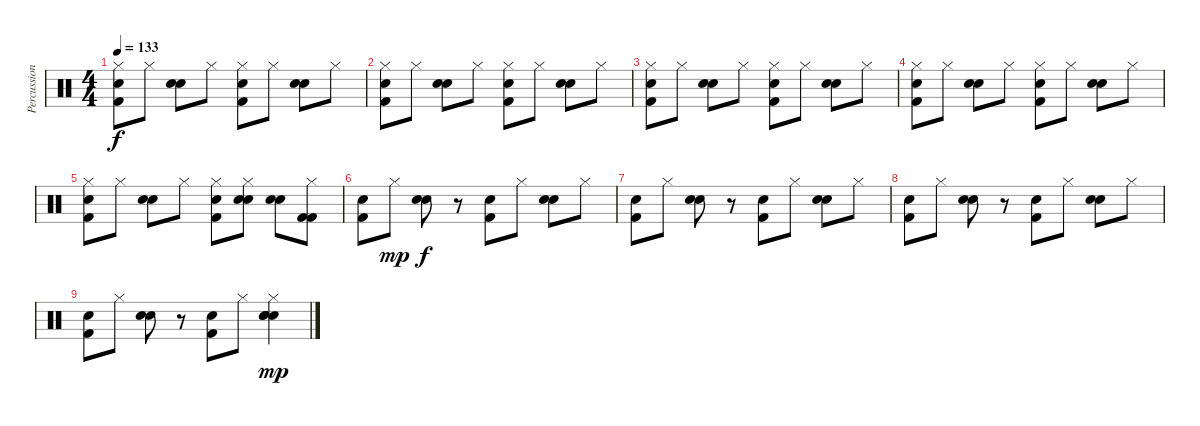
\track ("Percussions" "Percussion") {instrument percussion}
\staff {score}
\articulation defaults
\ts (4 4)
\tempo 133
\clef neutral
\ks c
("Snare (hit) 2" "Kick (hit) 2" "Hi-Hat (closed)").8{dy f} "Hi-Hat (closed)".8 ("Electric Snare (hit)" "Electric Snare (hit)").8 "Hi-Hat (closed)".8 ("Snare (hit) 2" "Kick (hit) 2" "Hi-Hat (closed)").8 "Hi-Hat (closed)".8 ("Electric Snare (hit)" "Electric Snare (hit)").8 "Hi-Hat (closed)".8 |
("Snare (hit) 2" "Kick (hit) 2" "Hi-Hat (closed)").8 "Hi-Hat (closed)".8 ("Electric Snare (hit)" "Electric Snare (hit)").8 "Hi-Hat (closed)".8 ("Snare (hit) 2" "Kick (hit) 2" "Hi-Hat (closed)").8 "Hi-Hat (closed)".8 ("Electric Snare (hit)" "Electric Snare (hit)").8 "Hi-Hat (closed)".8 |
("Snare (hit) 2" "Kick (hit) 2" "Hi-Hat (closed)").8 "Hi-Hat (closed)".8 ("Electric Snare (hit)" "Electric Snare (hit)").8 "Hi-Hat (closed)".8 ("Snare (hit) 2" "Kick (hit) 2" "Hi-Hat (closed)").8 "Hi-Hat (closed)".8 ("Electric Snare (hit)" "Electric Snare (hit)").8 "Hi-Hat (closed)".8 |
("Snare (hit) 2" "Kick (hit) 2" "Hi-Hat (closed)").8 "Hi-Hat (closed)".8 ("Electric Snare (hit)" "Electric Snare (hit)").8 "Hi-Hat (closed)".8 ("Snare (hit) 2" "Kick (hit) 2" "Hi-Hat (closed)").8 "Hi-Hat (closed)".8 ("Electric Snare (hit)" "Electric Snare (hit)").8 "Hi-Hat (closed)".8 |
("Snare (hit) 2" "Kick (hit) 2" "Hi-Hat (closed)").8 "Hi-Hat (closed)".8 ("Electric Snare (hit)" "Electric Snare (hit)").8 "Hi-Hat (closed)".8 ("Snare (hit) 2" "Kick (hit) 2" "Hi-Hat (closed)").8 ("Electric Snare (hit)" "Electric Snare (hit)" "Hi-Hat (closed)").8 ("Snare (hit) 2" "Snare (hit) 2").8 ("Kick (hit) 2" "Kick (hit) 2" "Hi-Hat (closed)").8 |
("Snare (hit) 2" "Kick (hit) 2").8 "Hi-Hat (closed)".8{dy mp} ("Electric Snare (hit)" "Electric Snare (hit)").8{dy f} r.8 ("Snare (hit) 2" "Kick (hit) 2").8 "Hi-Hat (closed)".8 ("Electric Snare (hit)" "Electric Snare (hit)").8 "Hi-Hat (closed)".8 |
("Snare (hit) 2" "Kick (hit) 2").8 "Hi-Hat (closed)".8 ("Electric Snare (hit)" "Electric Snare (hit)").8 r.8 ("Snare (hit) 2" "Kick (hit) 2").8 "Hi-Hat (closed)".8 ("Electric Snare (hit)" "Electric Snare (hit)").8 "Hi-Hat (closed)".8 |
("Snare (hit) 2" "Kick (hit) 2").8 "Hi-Hat (closed)".8 ("Electric Snare (hit)" "Electric Snare (hit)").8 r.8 ("Snare (hit) 2" "Kick (hit) 2").8 "Hi-Hat (closed)".8 ("Electric Snare (hit)" "Electric Snare (hit)").8 "Hi-Hat (closed)".8 |
("Snare (hit) 2" "Kick (hit) 2").8 "Hi-Hat (closed)".8 ("Electric Snare (hit)" "Electric Snare (hit)").8 r.8 ("Snare (hit) 2" "Kick (hit) 2").8 "Hi-Hat (closed)".8 ("Electric Snare (hit)" "Electric Snare (hit)" "Snare (hit) 2" "Hi-Hat (closed)").4{dy mp}
